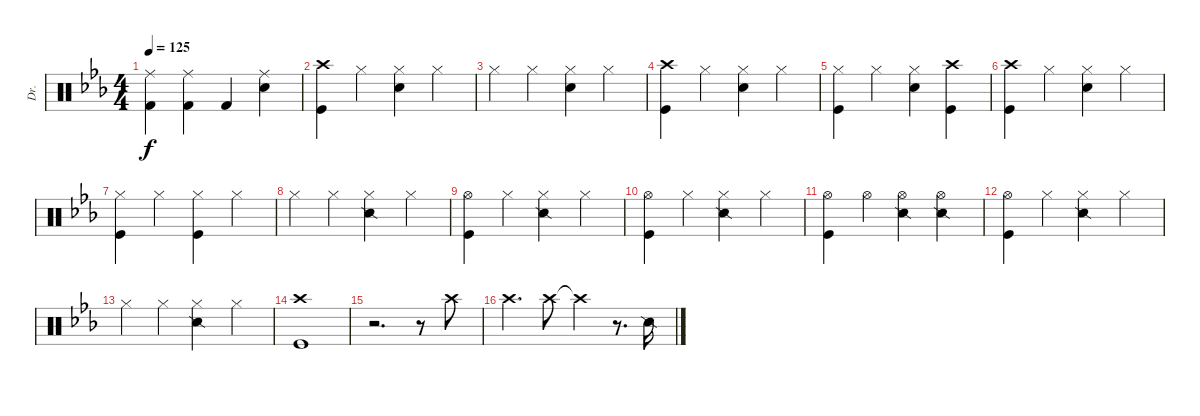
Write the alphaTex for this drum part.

\track ("Dr." "Dr.") {instrument percussion}
\staff {score}
\articulation defaults
\ts (4 4)
\tempo 125
\clef neutral
\ks eb
("Ride (middle)" "Kick (hit) 2").4{dy f} ("Ride (middle)" "Kick (hit) 2").4 "Kick (hit) 2".4 ("Ride (middle)" "Electric Snare (hit)").4 |
("Crash high (hit)" "Kick (hit)").4 "Hi-Hat (closed)".4 ("Hi-Hat (closed)" "Snare (hit) 2").4 "Hi-Hat (closed)".4 |
"Hi-Hat (closed)".4 "Hi-Hat (closed)".4 ("Hi-Hat (closed)" "Snare (hit) 2").4 "Hi-Hat (closed)".4 |
("Crash high (hit)" "Kick (hit)").4 "Hi-Hat (closed)".4 ("Hi-Hat (closed)" "Snare (hit) 2").4 "Hi-Hat (closed)".4 |
("Hi-Hat (closed)" "Kick (hit)").4 "Hi-Hat (closed)".4 ("Hi-Hat (closed)" "Snare (hit) 2").4 ("Crash high (hit)" "Kick (hit)").4 |
("Crash high (hit)" "Kick (hit)").4 "Hi-Hat (closed)".4 ("Hi-Hat (closed)" "Snare (hit) 2").4 "Hi-Hat (closed)".4 |
("Hi-Hat (closed)" "Kick (hit)").4 "Hi-Hat (closed)".4 ("Hi-Hat (closed)" "Kick (hit)").4 "Hi-Hat (closed)".4 |
"Hi-Hat (closed)".4 "Hi-Hat (closed)".4 ("Hi-Hat (closed)" "Snare (side stick) 2").4 "Hi-Hat (closed)".4 |
("Hi-Hat (open)" "Kick (hit)").4 "Hi-Hat (closed)".4 ("Hi-Hat (closed)" "Snare (side stick) 2").4 "Hi-Hat (closed)".4 |
("Hi-Hat (open)" "Kick (hit)").4 "Hi-Hat (closed)".4 ("Hi-Hat (closed)" "Snare (side stick) 2").4 "Hi-Hat (closed)".4 |
("Hi-Hat (open)" "Kick (hit)").4 "Hi-Hat (open)".4 ("Hi-Hat (open)" "Snare (side stick) 2").4 ("Hi-Hat (open)" "Snare (side stick) 2").4 |
("Hi-Hat (open)" "Kick (hit)").4 "Hi-Hat (closed)".4 ("Hi-Hat (closed)" "Snare (side stick) 2").4 "Hi-Hat (closed)".4 |
"Hi-Hat (closed)".4 "Hi-Hat (closed)".4 ("Hi-Hat (closed)" "Snare (side stick) 2").4 "Hi-Hat (closed)".4 |
("Crash high (hit)" "Kick (hit)").1 |
r.2{d} r.8 "Crash high (hit)".8 |
"Crash high (hit)".4{d} "Crash high (hit)".8 "Crash high (hit)"{t}.4 r.8{d} "Snare (side stick) 2".16
